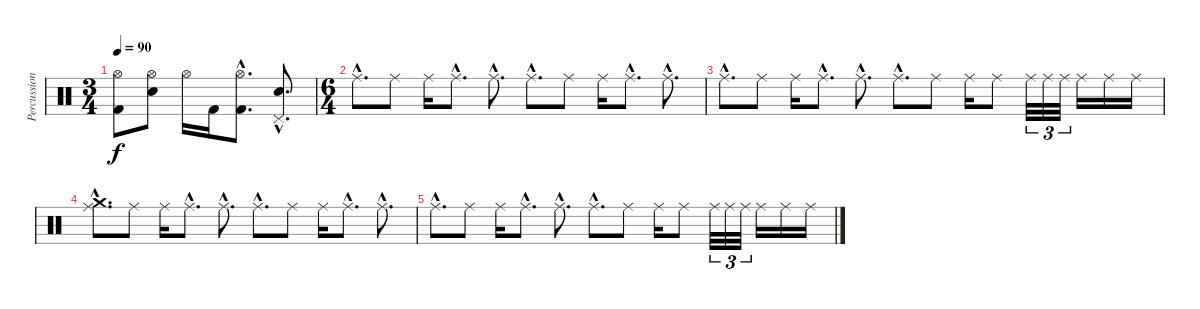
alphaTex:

\track ("Percussion" "Percussion") {instrument percussion}
\staff {score}
\articulation defaults
\ts (3 4)
\tempo 90
\clef neutral
\ks c
("Kick (hit) 2" "Hi-Hat (open)").8{dy f} ("Electric Snare (hit)" "Hi-Hat (open)").8 "Hi-Hat (open)".16 "Kick (hit) 2".16 ("Kick (hit) 2"{hac} "Hi-Hat (open)"{hac}).8{d} ("Electric Snare (hit)"{hac} "Pedal Hi-Hat (hit)"{hac}).8{d} |
\ts (6 4)
"Ride (middle)"{hac}.8{d} "Ride (middle)".8 "Ride (middle)".16 "Ride (middle)"{hac}.8{d} "Ride (middle)"{hac}.8{d} "Ride (middle)"{hac}.8{d} "Ride (middle)".8 "Ride (middle)".16 "Ride (middle)"{hac}.8{d} "Ride (middle)"{hac}.8{d} |
"Ride (middle)"{hac}.8{d} "Ride (middle)".8 "Ride (middle)".16 "Ride (middle)"{hac}.8{d} "Ride (middle)"{hac}.8{d} "Ride (middle)"{hac}.8{d} "Ride (middle)".8 "Ride (middle)".16 "Ride (middle)".8 "Ride (middle)".32{tu (3 2)} "Ride (middle)".32{tu (3 2)} "Ride (middle)".32{tu (3 2)} "Ride (middle)".16 "Ride (middle)".16 "Ride (middle)".16 |
("Ride (middle)"{hac} "Crash medium (hit)"{hac}).8{d} "Ride (middle)".8 "Ride (middle)".16 "Ride (middle)"{hac}.8{d} "Ride (middle)"{hac}.8{d} "Ride (middle)"{hac}.8{d} "Ride (middle)".8 "Ride (middle)".16 "Ride (middle)"{hac}.8{d} "Ride (middle)"{hac}.8{d} |
"Ride (middle)"{hac}.8{d} "Ride (middle)".8 "Ride (middle)".16 "Ride (middle)"{hac}.8{d} "Ride (middle)"{hac}.8{d} "Ride (middle)"{hac}.8{d} "Ride (middle)".8 "Ride (middle)".16 "Ride (middle)".8 "Ride (middle)".32{tu (3 2)} "Ride (middle)".32{tu (3 2)} "Ride (middle)".32{tu (3 2)} "Ride (middle)".16 "Ride (middle)".16 "Ride (middle)".16
